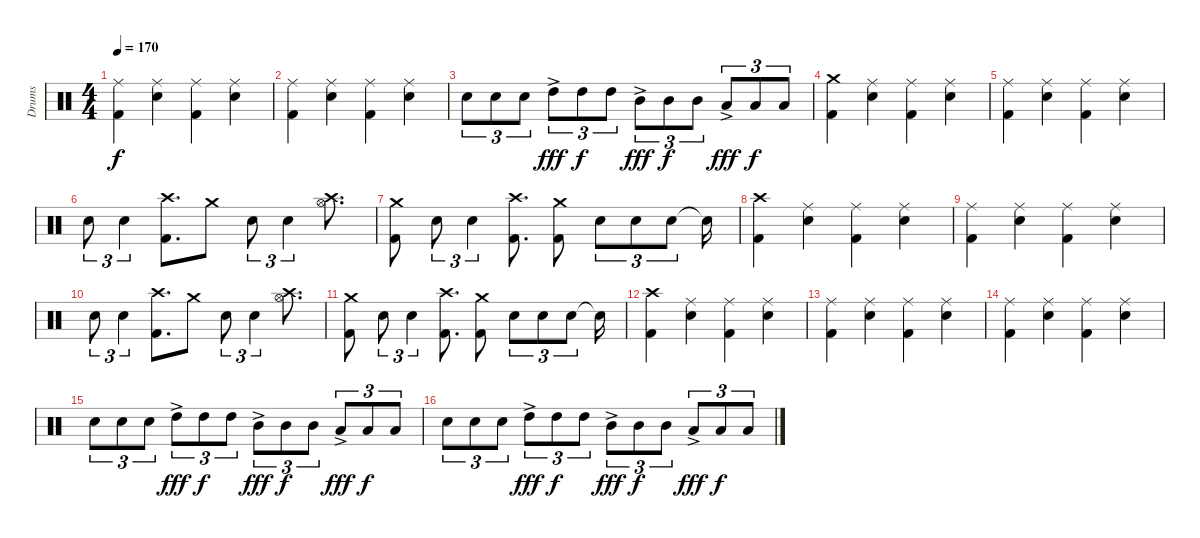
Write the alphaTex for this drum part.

\track ("Drums" "Drums") {instrument percussion}
\staff {score}
\articulation defaults
\ts (4 4)
\tempo 170
\clef neutral
\ks c
("Ride (middle)" "Kick (hit) 2").4{dy f} ("Ride (middle)" "Snare (hit) 2").4 ("Ride (middle)" "Kick (hit) 2").4 ("Ride (middle)" "Snare (hit) 2").4 |
("Ride (middle)" "Kick (hit) 2").4 ("Ride (middle)" "Snare (hit) 2").4 ("Ride (middle)" "Kick (hit) 2").4 ("Ride (middle)" "Snare (hit) 2").4 |
"Snare (hit) 2".8{tu (3 2)} "Snare (hit) 2".8{tu (3 2)} "Snare (hit) 2".8{tu (3 2)} "High Tom (hit)"{ac}.8{tu (3 2) dy fff} "High Tom (hit)".8{tu (3 2) dy f} "High Tom (hit)".8{tu (3 2)} "Mid Tom (hit)"{ac}.8{tu (3 2) dy fff} "Mid Tom (hit)".8{tu (3 2) dy f} "Mid Tom (hit)".8{tu (3 2)} "Low Tom (hit)"{ac}.8{tu (3 2) dy fff} "Low Tom (hit)".8{tu (3 2) dy f} "Low Tom (hit)".8{tu (3 2)} |
("Crash medium (hit)" "Kick (hit) 2").4 ("Ride (middle)" "Snare (hit) 2").4 ("Ride (middle)" "Kick (hit) 2").4 ("Ride (middle)" "Snare (hit) 2").4 |
("Ride (middle)" "Kick (hit) 2").4 ("Ride (middle)" "Snare (hit) 2").4 ("Ride (middle)" "Kick (hit) 2").4 ("Ride (middle)" "Snare (hit) 2").4 |
"Snare (hit) 2".8{tu (3 2)} "Snare (hit) 2".4{tu (3 2)} ("Crash high (hit)" "Kick (hit) 2").8{d} "Crash medium (hit)".8 "Snare (hit) 2".8{tu (3 2)} "Snare (hit) 2".4{tu (3 2)} ("Crash high (hit)" "Hi-Hat (open)").8{d} |
("Crash medium (hit)" "Kick (hit) 2").8 "Snare (hit) 2".8{tu (3 2)} "Snare (hit) 2".4{tu (3 2)} ("Crash high (hit)" "Kick (hit) 2").8{d} ("Crash medium (hit)" "Kick (hit) 2").8 "Snare (hit) 2".8{tu (3 2)} "Snare (hit) 2".8{tu (3 2)} "Snare (hit) 2".8{tu (3 2)} "Snare (hit)"{t}.16 |
("Crash high (hit)" "Kick (hit) 2").4 ("Ride (middle)" "Snare (hit) 2").4 ("Ride (middle)" "Kick (hit) 2").4 ("Ride (middle)" "Snare (hit) 2").4 |
("Ride (middle)" "Kick (hit) 2").4 ("Ride (middle)" "Snare (hit) 2").4 ("Ride (middle)" "Kick (hit) 2").4 ("Ride (middle)" "Snare (hit) 2").4 |
"Snare (hit) 2".8{tu (3 2)} "Snare (hit) 2".4{tu (3 2)} ("Crash high (hit)" "Kick (hit) 2").8{d} "Crash medium (hit)".8 "Snare (hit) 2".8{tu (3 2)} "Snare (hit) 2".4{tu (3 2)} ("Crash high (hit)" "Hi-Hat (open)").8{d} |
("Crash medium (hit)" "Kick (hit) 2").8 "Snare (hit) 2".8{tu (3 2)} "Snare (hit) 2".4{tu (3 2)} ("Crash high (hit)" "Kick (hit) 2").8{d} ("Crash medium (hit)" "Kick (hit) 2").8 "Snare (hit) 2".8{tu (3 2)} "Snare (hit) 2".8{tu (3 2)} "Snare (hit) 2".8{tu (3 2)} "Snare (hit)"{t}.16 |
("Crash high (hit)" "Kick (hit) 2").4 ("Ride (middle)" "Snare (hit) 2").4 ("Ride (middle)" "Kick (hit) 2").4 ("Ride (middle)" "Snare (hit) 2").4 |
("Ride (middle)" "Kick (hit) 2").4 ("Ride (middle)" "Snare (hit) 2").4 ("Ride (middle)" "Kick (hit) 2").4 ("Ride (middle)" "Snare (hit) 2").4 |
("Ride (middle)" "Kick (hit) 2").4 ("Ride (middle)" "Snare (hit) 2").4 ("Ride (middle)" "Kick (hit) 2").4 ("Ride (middle)" "Snare (hit) 2").4 |
"Snare (hit) 2".8{tu (3 2)} "Snare (hit) 2".8{tu (3 2)} "Snare (hit) 2".8{tu (3 2)} "High Tom (hit)"{ac}.8{tu (3 2) dy fff} "High Tom (hit)".8{tu (3 2) dy f} "High Tom (hit)".8{tu (3 2)} "Mid Tom (hit)"{ac}.8{tu (3 2) dy fff} "Mid Tom (hit)".8{tu (3 2) dy f} "Mid Tom (hit)".8{tu (3 2)} "Low Tom (hit)"{ac}.8{tu (3 2) dy fff} "Low Tom (hit)".8{tu (3 2) dy f} "Low Tom (hit)".8{tu (3 2)} |
"Snare (hit) 2".8{tu (3 2)} "Snare (hit) 2".8{tu (3 2)} "Snare (hit) 2".8{tu (3 2)} "High Tom (hit)"{ac}.8{tu (3 2) dy fff} "High Tom (hit)".8{tu (3 2) dy f} "High Tom (hit)".8{tu (3 2)} "Mid Tom (hit)"{ac}.8{tu (3 2) dy fff} "Mid Tom (hit)".8{tu (3 2) dy f} "Mid Tom (hit)".8{tu (3 2)} "Low Tom (hit)"{ac}.8{tu (3 2) dy fff} "Low Tom (hit)".8{tu (3 2) dy f} "Low Tom (hit)".8{tu (3 2)}
